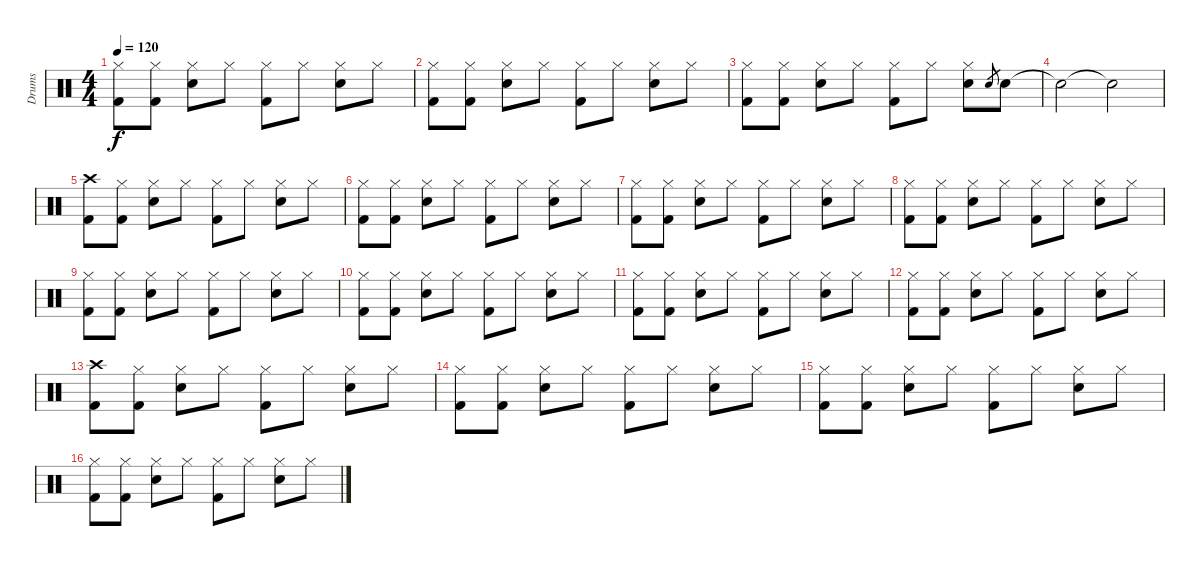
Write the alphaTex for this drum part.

\track ("Drums" "Drums") {instrument percussion}
\staff {score}
\articulation defaults
\ts (4 4)
\tempo 120
\clef neutral
\ks c
("Hi-Hat (closed)" "Kick (hit) 2").8{dy f} ("Hi-Hat (closed)" "Kick (hit) 2").8 ("Hi-Hat (closed)" "Electric Snare (hit)").8 "Hi-Hat (closed)".8 ("Hi-Hat (closed)" "Kick (hit) 2").8 "Hi-Hat (closed)".8 ("Hi-Hat (closed)" "Electric Snare (hit)").8 "Hi-Hat (closed)".8 |
("Hi-Hat (closed)" "Kick (hit) 2").8 ("Hi-Hat (closed)" "Kick (hit) 2").8 ("Hi-Hat (closed)" "Electric Snare (hit)").8 "Hi-Hat (closed)".8 ("Hi-Hat (closed)" "Kick (hit) 2").8 "Hi-Hat (closed)".8 ("Hi-Hat (closed)" "Electric Snare (hit)").8 "Hi-Hat (closed)".8 |
("Hi-Hat (closed)" "Kick (hit) 2").8 ("Hi-Hat (closed)" "Kick (hit) 2").8 ("Hi-Hat (closed)" "Electric Snare (hit)").8 "Hi-Hat (closed)".8 ("Hi-Hat (closed)" "Kick (hit) 2").8 "Hi-Hat (closed)".8 ("Hi-Hat (closed)" "Electric Snare (hit)").8 "Electric Snare (hit)".8{gr} "Electric Snare (hit)".8 |
"Electric Snare (hit)"{t}.2 "Snare (hit)"{t}.2 |
("Crash high (hit)" "Kick (hit) 2").8 ("Hi-Hat (closed)" "Kick (hit) 2").8 ("Hi-Hat (closed)" "Electric Snare (hit)").8 "Hi-Hat (closed)".8 ("Hi-Hat (closed)" "Kick (hit) 2").8 "Hi-Hat (closed)".8 ("Hi-Hat (closed)" "Electric Snare (hit)").8 "Hi-Hat (closed)".8 |
("Hi-Hat (closed)" "Kick (hit) 2").8 ("Hi-Hat (closed)" "Kick (hit) 2").8 ("Hi-Hat (closed)" "Electric Snare (hit)").8 "Hi-Hat (closed)".8 ("Hi-Hat (closed)" "Kick (hit) 2").8 "Hi-Hat (closed)".8 ("Hi-Hat (closed)" "Electric Snare (hit)").8 "Hi-Hat (closed)".8 |
("Hi-Hat (closed)" "Kick (hit) 2").8 ("Hi-Hat (closed)" "Kick (hit) 2").8 ("Hi-Hat (closed)" "Electric Snare (hit)").8 "Hi-Hat (closed)".8 ("Hi-Hat (closed)" "Kick (hit) 2").8 "Hi-Hat (closed)".8 ("Hi-Hat (closed)" "Electric Snare (hit)").8 "Hi-Hat (closed)".8 |
("Hi-Hat (closed)" "Kick (hit) 2").8 ("Hi-Hat (closed)" "Kick (hit) 2").8 ("Hi-Hat (closed)" "Electric Snare (hit)").8 "Hi-Hat (closed)".8 ("Hi-Hat (closed)" "Kick (hit) 2").8 "Hi-Hat (closed)".8 ("Hi-Hat (closed)" "Electric Snare (hit)").8 "Hi-Hat (closed)".8 |
("Hi-Hat (closed)" "Kick (hit) 2").8 ("Hi-Hat (closed)" "Kick (hit) 2").8 ("Hi-Hat (closed)" "Electric Snare (hit)").8 "Hi-Hat (closed)".8 ("Hi-Hat (closed)" "Kick (hit) 2").8 "Hi-Hat (closed)".8 ("Hi-Hat (closed)" "Electric Snare (hit)").8 "Hi-Hat (closed)".8 |
("Hi-Hat (closed)" "Kick (hit) 2").8 ("Hi-Hat (closed)" "Kick (hit) 2").8 ("Hi-Hat (closed)" "Electric Snare (hit)").8 "Hi-Hat (closed)".8 ("Hi-Hat (closed)" "Kick (hit) 2").8 "Hi-Hat (closed)".8 ("Hi-Hat (closed)" "Electric Snare (hit)").8 "Hi-Hat (closed)".8 |
("Hi-Hat (closed)" "Kick (hit) 2").8 ("Hi-Hat (closed)" "Kick (hit) 2").8 ("Hi-Hat (closed)" "Electric Snare (hit)").8 "Hi-Hat (closed)".8 ("Hi-Hat (closed)" "Kick (hit) 2").8 "Hi-Hat (closed)".8 ("Hi-Hat (closed)" "Electric Snare (hit)").8 "Hi-Hat (closed)".8 |
("Hi-Hat (closed)" "Kick (hit) 2").8 ("Hi-Hat (closed)" "Kick (hit) 2").8 ("Hi-Hat (closed)" "Electric Snare (hit)").8 "Hi-Hat (closed)".8 ("Hi-Hat (closed)" "Kick (hit) 2").8 "Hi-Hat (closed)".8 ("Hi-Hat (closed)" "Electric Snare (hit)").8 "Hi-Hat (closed)".8 |
("Crash high (hit)" "Kick (hit) 2").8 ("Hi-Hat (closed)" "Kick (hit) 2").8 ("Hi-Hat (closed)" "Electric Snare (hit)").8 "Hi-Hat (closed)".8 ("Hi-Hat (closed)" "Kick (hit) 2").8 "Hi-Hat (closed)".8 ("Hi-Hat (closed)" "Electric Snare (hit)").8 "Hi-Hat (closed)".8 |
("Hi-Hat (closed)" "Kick (hit) 2").8 ("Hi-Hat (closed)" "Kick (hit) 2").8 ("Hi-Hat (closed)" "Electric Snare (hit)").8 "Hi-Hat (closed)".8 ("Hi-Hat (closed)" "Kick (hit) 2").8 "Hi-Hat (closed)".8 ("Hi-Hat (closed)" "Electric Snare (hit)").8 "Hi-Hat (closed)".8 |
("Hi-Hat (closed)" "Kick (hit) 2").8 ("Hi-Hat (closed)" "Kick (hit) 2").8 ("Hi-Hat (closed)" "Electric Snare (hit)").8 "Hi-Hat (closed)".8 ("Hi-Hat (closed)" "Kick (hit) 2").8 "Hi-Hat (closed)".8 ("Hi-Hat (closed)" "Electric Snare (hit)").8 "Hi-Hat (closed)".8 |
("Hi-Hat (closed)" "Kick (hit) 2").8 ("Hi-Hat (closed)" "Kick (hit) 2").8 ("Hi-Hat (closed)" "Electric Snare (hit)").8 "Hi-Hat (closed)".8 ("Hi-Hat (closed)" "Kick (hit) 2").8 "Hi-Hat (closed)".8 ("Hi-Hat (closed)" "Electric Snare (hit)").8 "Hi-Hat (closed)".8
